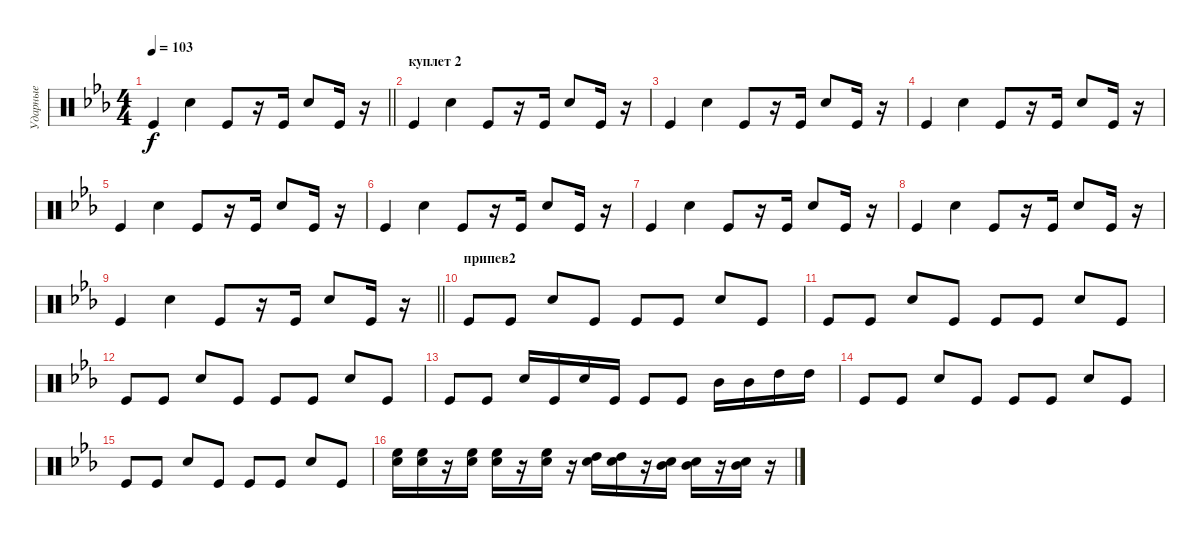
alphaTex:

\track ("Ударные" "Ударные") {instrument percussion}
\staff {score}
\articulation defaults
\ts (4 4)
\tempo 103
\clef neutral
\barLineRight lightlight
\ks cminor "Kick (hit)".4{dy f} "Electric Snare (hit)".4 "Kick (hit)".8
r.16 "Kick (hit)".16 "Electric Snare (hit)".8 "Kick (hit)".16 r.16 |
\section ("" "куплет 2")
"Kick (hit)".4 "Electric Snare (hit)".4 "Kick (hit)".8 r.16 "Kick (hit)".16 "Electric Snare (hit)".8 "Kick (hit)".16 r.16 |
"Kick (hit)".4 "Electric Snare (hit)".4 "Kick (hit)".8 r.16 "Kick (hit)".16 "Electric Snare (hit)".8 "Kick (hit)".16 r.16 |
"Kick (hit)".4 "Electric Snare (hit)".4 "Kick (hit)".8 r.16 "Kick (hit)".16 "Electric Snare (hit)".8 "Kick (hit)".16 r.16 |
"Kick (hit)".4 "Electric Snare (hit)".4 "Kick (hit)".8 r.16 "Kick (hit)".16 "Electric Snare (hit)".8 "Kick (hit)".16 r.16 |
"Kick (hit)".4 "Electric Snare (hit)".4 "Kick (hit)".8 r.16 "Kick (hit)".16 "Electric Snare (hit)".8 "Kick (hit)".16 r.16 |
"Kick (hit)".4 "Electric Snare (hit)".4 "Kick (hit)".8 r.16 "Kick (hit)".16 "Electric Snare (hit)".8 "Kick (hit)".16 r.16 |
"Kick (hit)".4 "Electric Snare (hit)".4 "Kick (hit)".8 r.16 "Kick (hit)".16 "Electric Snare (hit)".8 "Kick (hit)".16 r.16 |
\barLineRight lightlight "Kick (hit)".4 "Electric Snare (hit)".4 "Kick (hit)".8
r.16 "Kick (hit)".16 "Electric Snare (hit)".8 "Kick (hit)".16 r.16 |
\section ("" "припев2")
"Kick (hit)".8 "Kick (hit)".8 "Electric Snare (hit)".8 "Kick (hit)".8 "Kick (hit)".8 "Kick (hit)".8 "Electric Snare (hit)".8 "Kick (hit)".8 |
"Kick (hit)".8 "Kick (hit)".8 "Electric Snare (hit)".8 "Kick (hit)".8 "Kick (hit)".8 "Kick (hit)".8 "Electric Snare (hit)".8 "Kick (hit)".8 |
"Kick (hit)".8 "Kick (hit)".8 "Electric Snare (hit)".8 "Kick (hit)".8 "Kick (hit)".8 "Kick (hit)".8 "Electric Snare (hit)".8 "Kick (hit)".8 |
"Kick (hit)".8 "Kick (hit)".8 "Electric Snare (hit)".16 "Kick (hit)".16 "Electric Snare (hit)".16 "Kick (hit)".16 "Kick (hit)".8 "Kick (hit)".8 "Mid Tom (hit)".16 "Mid Tom (hit)".16 "High Tom (hit)".16 "High Tom (hit)".16 |
"Kick (hit)".8 "Kick (hit)".8 "Electric Snare (hit)".8 "Kick (hit)".8 "Kick (hit)".8 "Kick (hit)".8 "Electric Snare (hit)".8 "Kick (hit)".8 |
"Kick (hit)".8 "Kick (hit)".8 "Electric Snare (hit)".8 "Kick (hit)".8 "Kick (hit)".8 "Kick (hit)".8 "Electric Snare (hit)".8 "Kick (hit)".8 |
("High Floor Tom (hit)" "Electric Snare (hit)").16 ("High Floor Tom (hit)" "Electric Snare (hit)").16 r.16 ("High Floor Tom (hit)" "Electric Snare (hit)").16 ("High Floor Tom (hit)" "Electric Snare (hit)").16 r.16 ("High Floor Tom (hit)" "Electric Snare (hit)").16 r.16 ("High Tom (hit)" "Electric Snare (hit)").16 ("High Tom (hit)" "Electric Snare (hit)").16 r.16 ("Mid Tom (hit)" "Electric Snare (hit)").16 ("Mid Tom (hit)" "Electric Snare (hit)").16 r.16 ("Mid Tom (hit)" "Electric Snare (hit)").16 r.16
